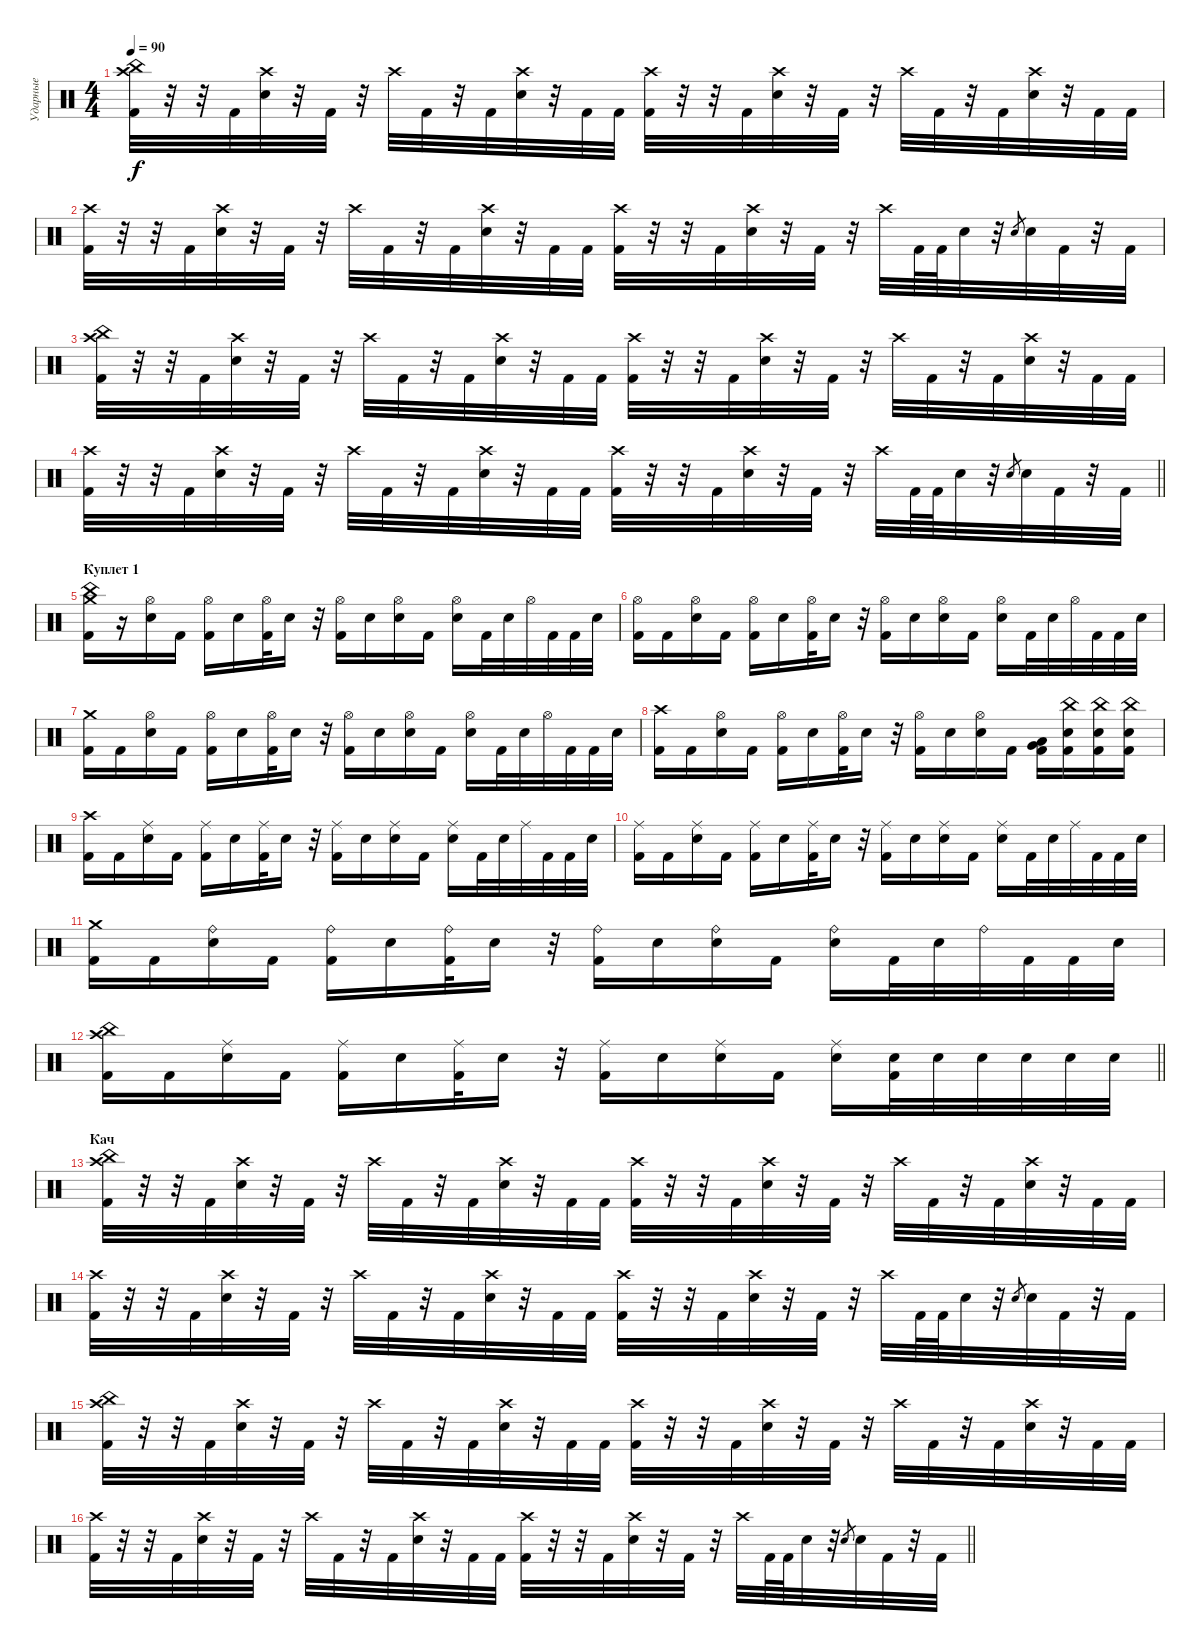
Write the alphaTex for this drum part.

\track ("Ударные" "Ударные") {instrument percussion}
\staff {score}
\articulation defaults
\ts (4 4)
\tempo 90
\clef neutral
\ks c
("China (hit)" "Crash high (hit)" "Kick (hit) 2").32{dy f} r.32 r.32 "Kick (hit) 2".32 ("Crash high (hit)" "Electric Snare (hit)").32 r.32 "Kick (hit) 2".32 r.32 "Crash high (hit)".32 "Kick (hit) 2".32 r.32 "Kick (hit) 2".32 ("Crash high (hit)" "Electric Snare (hit)").32 r.32 "Kick (hit) 2".32 "Kick (hit) 2".32 ("Crash high (hit)" "Kick (hit) 2").32 r.32 r.32 "Kick (hit) 2".32 ("Crash high (hit)" "Electric Snare (hit)").32 r.32 "Kick (hit) 2".32 r.32 "Crash high (hit)".32 "Kick (hit) 2".32 r.32 "Kick (hit) 2".32 ("Crash high (hit)" "Electric Snare (hit)").32 r.32 "Kick (hit) 2".32 "Kick (hit) 2".32 |
("Crash high (hit)" "Kick (hit) 2").32 r.32 r.32 "Kick (hit) 2".32 ("Crash high (hit)" "Electric Snare (hit)").32 r.32 "Kick (hit) 2".32 r.32 "Crash high (hit)".32 "Kick (hit) 2".32 r.32 "Kick (hit) 2".32 ("Crash high (hit)" "Electric Snare (hit)").32 r.32 "Kick (hit) 2".32 "Kick (hit) 2".32 ("Crash high (hit)" "Kick (hit) 2").32 r.32 r.32 "Kick (hit) 2".32 ("Crash high (hit)" "Electric Snare (hit)").32 r.32 "Kick (hit) 2".32 r.32 "Crash high (hit)".32 "Kick (hit) 2".64 "Kick (hit) 2".64 "Electric Snare (hit)".32 r.32 "Electric Snare (hit)".8{gr} "Electric Snare (hit)".32 "Kick (hit) 2".32 r.32 "Kick (hit) 2".32 |
("China (hit)" "Crash high (hit)" "Kick (hit) 2").32 r.32 r.32 "Kick (hit) 2".32 ("Crash high (hit)" "Electric Snare (hit)").32 r.32 "Kick (hit) 2".32 r.32 "Crash high (hit)".32 "Kick (hit) 2".32 r.32 "Kick (hit) 2".32 ("Crash high (hit)" "Electric Snare (hit)").32 r.32 "Kick (hit) 2".32 "Kick (hit) 2".32 ("Crash high (hit)" "Kick (hit) 2").32 r.32 r.32 "Kick (hit) 2".32 ("Crash high (hit)" "Electric Snare (hit)").32 r.32 "Kick (hit) 2".32 r.32 "Crash high (hit)".32 "Kick (hit) 2".32 r.32 "Kick (hit) 2".32 ("Crash high (hit)" "Electric Snare (hit)").32 r.32 "Kick (hit) 2".32 "Kick (hit) 2".32 |
\barLineRight lightlight
("Crash high (hit)" "Kick (hit) 2").32 r.32 r.32 "Kick (hit) 2".32 ("Crash high (hit)" "Electric Snare (hit)").32 r.32 "Kick (hit) 2".32 r.32 "Crash high (hit)".32 "Kick (hit) 2".32 r.32 "Kick (hit) 2".32 ("Crash high (hit)" "Electric Snare (hit)").32 r.32 "Kick (hit) 2".32 "Kick (hit) 2".32 ("Crash high (hit)" "Kick (hit) 2").32 r.32 r.32 "Kick (hit) 2".32 ("Crash high (hit)" "Electric Snare (hit)").32 r.32 "Kick (hit) 2".32 r.32 "Crash high (hit)".32 "Kick (hit) 2".64 "Kick (hit) 2".64 "Electric Snare (hit)".32 r.32 "Electric Snare (hit)".8{gr} "Electric Snare (hit)".32 "Kick (hit) 2".32 r.32 "Kick (hit) 2".32 |
\section ("" "Куплет 1")
("Crash medium (hit)" "China (hit)" "Kick (hit) 2").16 r.16 ("Hi-Hat (open)" "Electric Snare (hit)").16 "Kick (hit) 2".16 ("Hi-Hat (open)" "Kick (hit) 2").16 "Electric Snare (hit)".16 ("Hi-Hat (open)" "Kick (hit) 2").32 "Electric Snare (hit)".16 r.32 ("Hi-Hat (open)" "Kick (hit) 2").16 "Electric Snare (hit)".16 ("Hi-Hat (open)" "Electric Snare (hit)").16 "Kick (hit) 2".16 ("Hi-Hat (open)" "Electric Snare (hit)").16 "Kick (hit) 2".32 "Electric Snare (hit)".32 "Hi-Hat (open)".32 "Kick (hit) 2".32 "Kick (hit) 2".32 "Electric Snare (hit)".32 |
("Hi-Hat (open)" "Kick (hit) 2").16 "Kick (hit) 2".16 ("Hi-Hat (open)" "Electric Snare (hit)").16 "Kick (hit) 2".16 ("Hi-Hat (open)" "Kick (hit) 2").16 "Electric Snare (hit)".16 ("Hi-Hat (open)" "Kick (hit) 2").32 "Electric Snare (hit)".16 r.32 ("Hi-Hat (open)" "Kick (hit) 2").16 "Electric Snare (hit)".16 ("Hi-Hat (open)" "Electric Snare (hit)").16 "Kick (hit) 2".16 ("Hi-Hat (open)" "Electric Snare (hit)").16 "Kick (hit) 2".32 "Electric Snare (hit)".32 "Hi-Hat (open)".32 "Kick (hit) 2".32 "Kick (hit) 2".32 "Electric Snare (hit)".32 |
("Crash medium (hit)" "Kick (hit) 2").16 "Kick (hit) 2".16 ("Hi-Hat (open)" "Electric Snare (hit)").16 "Kick (hit) 2".16 ("Hi-Hat (open)" "Kick (hit) 2").16 "Electric Snare (hit)".16 ("Hi-Hat (open)" "Kick (hit) 2").32 "Electric Snare (hit)".16 r.32 ("Hi-Hat (open)" "Kick (hit) 2").16 "Electric Snare (hit)".16 ("Hi-Hat (open)" "Electric Snare (hit)").16 "Kick (hit) 2".16 ("Hi-Hat (open)" "Electric Snare (hit)").16 "Kick (hit) 2".32 "Electric Snare (hit)".32 "Hi-Hat (open)".32 "Kick (hit) 2".32 "Kick (hit) 2".32 "Electric Snare (hit)".32 |
("Crash high (hit)" "Kick (hit) 2").16 "Kick (hit) 2".16 ("Hi-Hat (open)" "Electric Snare (hit)").16 "Kick (hit) 2".16 ("Hi-Hat (open)" "Kick (hit) 2").16 "Electric Snare (hit)".16 ("Hi-Hat (open)" "Kick (hit) 2").32 "Electric Snare (hit)".16 r.32 ("Hi-Hat (open)" "Kick (hit) 2").16 "Electric Snare (hit)".16 ("Hi-Hat (open)" "Electric Snare (hit)").16 "Kick (hit) 2".16 ("Low Tom (hit)" "Very Low Tom (hit)" "Kick (hit) 2").16 ("China (hit)" "Electric Snare (hit)" "Kick (hit) 2").16 ("China (hit)" "Electric Snare (hit)" "Kick (hit) 2").16 ("China (hit)" "Electric Snare (hit)" "Kick (hit) 2").16 |
("Crash high (hit)" "Kick (hit) 2").16 "Kick (hit) 2".16 ("Ride (middle)" "Electric Snare (hit)").16 "Kick (hit) 2".16 ("Ride (middle)" "Kick (hit) 2").16 "Electric Snare (hit)".16 ("Ride (middle)" "Kick (hit) 2").32 "Electric Snare (hit)".16 r.32 ("Ride (middle)" "Kick (hit) 2").16 "Electric Snare (hit)".16 ("Ride (middle)" "Electric Snare (hit)").16 "Kick (hit) 2".16 ("Ride (middle)" "Electric Snare (hit)").16 "Kick (hit) 2".32 "Electric Snare (hit)".32 "Ride (middle)".32 "Kick (hit) 2".32 "Kick (hit) 2".32 "Electric Snare (hit)".32 |
("Ride (middle)" "Kick (hit) 2").16 "Kick (hit) 2".16 ("Ride (middle)" "Electric Snare (hit)").16 "Kick (hit) 2".16 ("Ride (middle)" "Kick (hit) 2").16 "Electric Snare (hit)".16 ("Ride (middle)" "Kick (hit) 2").32 "Electric Snare (hit)".16 r.32 ("Ride (middle)" "Kick (hit) 2").16 "Electric Snare (hit)".16 ("Ride (middle)" "Electric Snare (hit)").16 "Kick (hit) 2".16 ("Ride (middle)" "Electric Snare (hit)").16 "Kick (hit) 2".32 "Electric Snare (hit)".32 "Ride (middle)".32 "Kick (hit) 2".32 "Kick (hit) 2".32 "Electric Snare (hit)".32 |
("Crash medium (hit)" "Kick (hit) 2").16 "Kick (hit) 2".16 ("Ride (bell)" "Electric Snare (hit)").16 "Kick (hit) 2".16 ("Ride (bell)" "Kick (hit) 2").16 "Electric Snare (hit)".16 ("Ride (bell)" "Kick (hit) 2").32 "Electric Snare (hit)".16 r.32 ("Ride (bell)" "Kick (hit) 2").16 "Electric Snare (hit)".16 ("Ride (bell)" "Electric Snare (hit)").16 "Kick (hit) 2".16 ("Ride (bell)" "Electric Snare (hit)").16 "Kick (hit) 2".32 "Electric Snare (hit)".32 "Ride (bell)".32 "Kick (hit) 2".32 "Kick (hit) 2".32 "Electric Snare (hit)".32 |
\barLineRight lightlight
("Crash high (hit)" "China (hit)" "Kick (hit) 2").16 "Kick (hit) 2".16 ("Ride (middle)" "Electric Snare (hit)").16 "Kick (hit) 2".16 ("Ride (middle)" "Kick (hit) 2").16 "Electric Snare (hit)".16 ("Ride (middle)" "Kick (hit) 2").32 "Electric Snare (hit)".16 r.32 ("Ride (middle)" "Kick (hit) 2").16 "Electric Snare (hit)".16 ("Ride (middle)" "Electric Snare (hit)").16 "Kick (hit) 2".16 ("Ride (middle)" "Electric Snare (hit)").16 ("Electric Snare (hit)" "Kick (hit) 2").32 "Electric Snare (hit)".32 "Electric Snare (hit)".32 "Electric Snare (hit)".32 "Electric Snare (hit)".32 "Electric Snare (hit)".32 |
\section ("" "Кач")
("China (hit)" "Crash high (hit)" "Kick (hit) 2").32 r.32 r.32 "Kick (hit) 2".32 ("Crash high (hit)" "Electric Snare (hit)").32 r.32 "Kick (hit) 2".32 r.32 "Crash high (hit)".32 "Kick (hit) 2".32 r.32 "Kick (hit) 2".32 ("Crash high (hit)" "Electric Snare (hit)").32 r.32 "Kick (hit) 2".32 "Kick (hit) 2".32 ("Crash high (hit)" "Kick (hit) 2").32 r.32 r.32 "Kick (hit) 2".32 ("Crash high (hit)" "Electric Snare (hit)").32 r.32 "Kick (hit) 2".32 r.32 "Crash high (hit)".32 "Kick (hit) 2".32 r.32 "Kick (hit) 2".32 ("Crash high (hit)" "Electric Snare (hit)").32 r.32 "Kick (hit) 2".32 "Kick (hit) 2".32 |
("Crash high (hit)" "Kick (hit) 2").32 r.32 r.32 "Kick (hit) 2".32 ("Crash high (hit)" "Electric Snare (hit)").32 r.32 "Kick (hit) 2".32 r.32 "Crash high (hit)".32 "Kick (hit) 2".32 r.32 "Kick (hit) 2".32 ("Crash high (hit)" "Electric Snare (hit)").32 r.32 "Kick (hit) 2".32 "Kick (hit) 2".32 ("Crash high (hit)" "Kick (hit) 2").32 r.32 r.32 "Kick (hit) 2".32 ("Crash high (hit)" "Electric Snare (hit)").32 r.32 "Kick (hit) 2".32 r.32 "Crash high (hit)".32 "Kick (hit) 2".64 "Kick (hit) 2".64 "Electric Snare (hit)".32 r.32 "Electric Snare (hit)".8{gr} "Electric Snare (hit)".32 "Kick (hit) 2".32 r.32 "Kick (hit) 2".32 |
("China (hit)" "Crash high (hit)" "Kick (hit) 2").32 r.32 r.32 "Kick (hit) 2".32 ("Crash high (hit)" "Electric Snare (hit)").32 r.32 "Kick (hit) 2".32 r.32 "Crash high (hit)".32 "Kick (hit) 2".32 r.32 "Kick (hit) 2".32 ("Crash high (hit)" "Electric Snare (hit)").32 r.32 "Kick (hit) 2".32 "Kick (hit) 2".32 ("Crash high (hit)" "Kick (hit) 2").32 r.32 r.32 "Kick (hit) 2".32 ("Crash high (hit)" "Electric Snare (hit)").32 r.32 "Kick (hit) 2".32 r.32 "Crash high (hit)".32 "Kick (hit) 2".32 r.32 "Kick (hit) 2".32 ("Crash high (hit)" "Electric Snare (hit)").32 r.32 "Kick (hit) 2".32 "Kick (hit) 2".32 |
\barLineRight lightlight
("Crash high (hit)" "Kick (hit) 2").32 r.32 r.32 "Kick (hit) 2".32 ("Crash high (hit)" "Electric Snare (hit)").32 r.32 "Kick (hit) 2".32 r.32 "Crash high (hit)".32 "Kick (hit) 2".32 r.32 "Kick (hit) 2".32 ("Crash high (hit)" "Electric Snare (hit)").32 r.32 "Kick (hit) 2".32 "Kick (hit) 2".32 ("Crash high (hit)" "Kick (hit) 2").32 r.32 r.32 "Kick (hit) 2".32 ("Crash high (hit)" "Electric Snare (hit)").32 r.32 "Kick (hit) 2".32 r.32 "Crash high (hit)".32 "Kick (hit) 2".64 "Kick (hit) 2".64 "Electric Snare (hit)".32 r.32 "Electric Snare (hit)".8{gr} "Electric Snare (hit)".32 "Kick (hit) 2".32 r.32 "Kick (hit) 2".32
